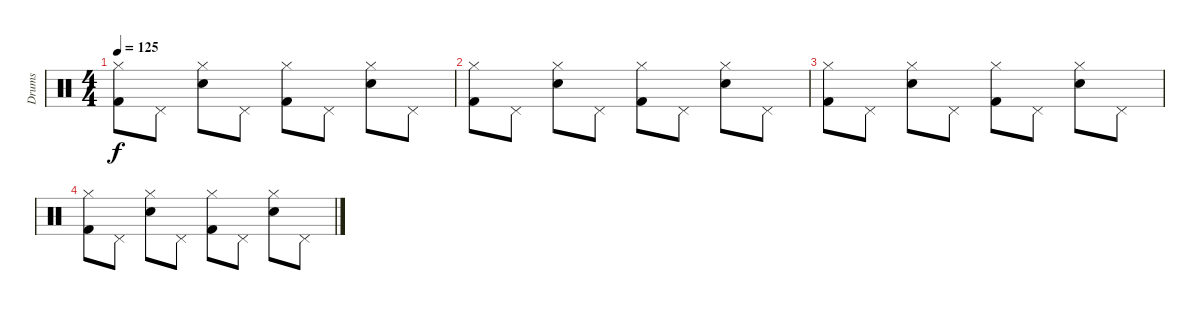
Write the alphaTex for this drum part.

\track ("Drums" "Drums") {instrument percussion}
\staff {score}
\articulation defaults
\ts (4 4)
\tempo 125
\clef neutral
\ks c
("Hi-Hat (closed)" "Kick (hit) 2").8{dy f volume 8} "Pedal Hi-Hat (hit)".8 ("Hi-Hat (closed)" "Electric Snare (hit)").8 "Pedal Hi-Hat (hit)".8 ("Hi-Hat (closed)" "Kick (hit) 2").8 "Pedal Hi-Hat (hit)".8 ("Hi-Hat (closed)" "Electric Snare (hit)").8 "Pedal Hi-Hat (hit)".8 |
("Hi-Hat (closed)" "Kick (hit) 2").8 "Pedal Hi-Hat (hit)".8 ("Hi-Hat (closed)" "Electric Snare (hit)").8 "Pedal Hi-Hat (hit)".8 ("Hi-Hat (closed)" "Kick (hit) 2").8 "Pedal Hi-Hat (hit)".8 ("Hi-Hat (closed)" "Electric Snare (hit)").8 "Pedal Hi-Hat (hit)".8 |
("Hi-Hat (closed)" "Kick (hit) 2").8{volume 1} "Pedal Hi-Hat (hit)".8 ("Hi-Hat (closed)" "Electric Snare (hit)").8 "Pedal Hi-Hat (hit)".8 ("Hi-Hat (closed)" "Kick (hit) 2").8 "Pedal Hi-Hat (hit)".8 ("Hi-Hat (closed)" "Electric Snare (hit)").8 "Pedal Hi-Hat (hit)".8 |
("Hi-Hat (closed)" "Kick (hit) 2").8 "Pedal Hi-Hat (hit)".8 ("Hi-Hat (closed)" "Electric Snare (hit)").8 "Pedal Hi-Hat (hit)".8 ("Hi-Hat (closed)" "Kick (hit) 2").8 "Pedal Hi-Hat (hit)".8 ("Hi-Hat (closed)" "Electric Snare (hit)").8 "Pedal Hi-Hat (hit)".8
